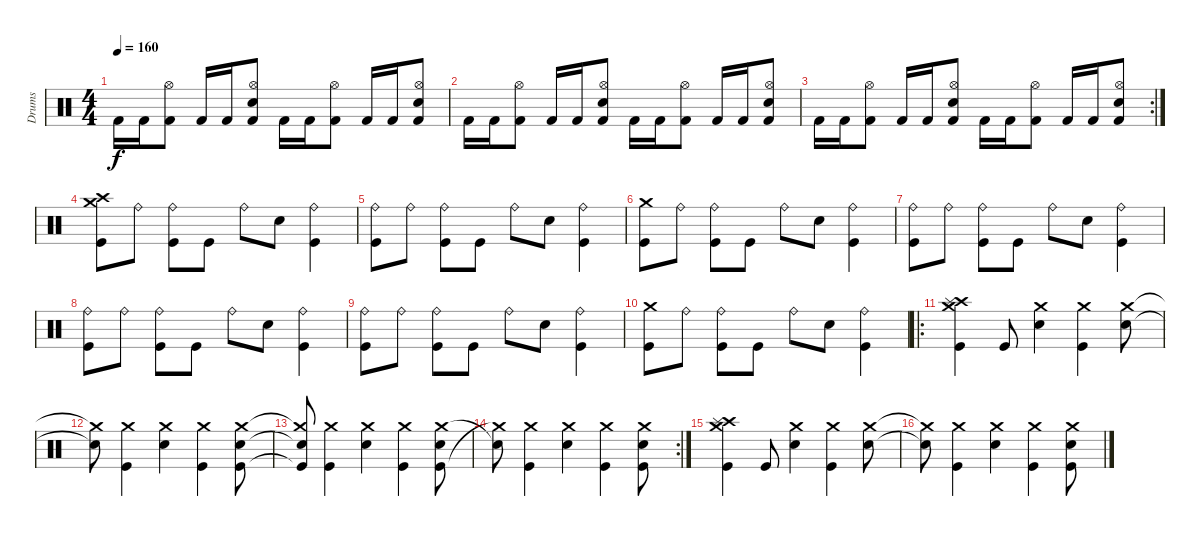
\track ("Drums" "Drums") {instrument percussion}
\staff {score}
\articulation defaults
\ts (4 4)
\tempo 160
\clef neutral
\ks c "Kick (hit) 2".16{dy f} "Kick (hit) 2".16
("Hi-Hat (open)" "Kick (hit) 2").8 "Kick (hit) 2".16 "Kick (hit) 2".16 ("Hi-Hat (open)" "Electric Snare (hit)" "Kick (hit) 2").8 "Kick (hit) 2".16 "Kick (hit) 2".16 ("Hi-Hat (open)" "Kick (hit) 2").8 "Kick (hit) 2".16 "Kick (hit) 2".16 ("Hi-Hat (open)" "Electric Snare (hit)" "Kick (hit) 2").8 |
"Kick (hit) 2".16 "Kick (hit) 2".16 ("Hi-Hat (open)" "Kick (hit) 2").8 "Kick (hit) 2".16 "Kick (hit) 2".16 ("Hi-Hat (open)" "Electric Snare (hit)" "Kick (hit) 2").8 "Kick (hit) 2".16 "Kick (hit) 2".16 ("Hi-Hat (open)" "Kick (hit) 2").8 "Kick (hit) 2".16 "Kick (hit) 2".16 ("Hi-Hat (open)" "Electric Snare (hit)" "Kick (hit) 2").8 |
\rc 2 "Kick (hit) 2".16 "Kick (hit) 2".16
("Hi-Hat (open)" "Kick (hit) 2").8 "Kick (hit) 2".16 "Kick (hit) 2".16 ("Hi-Hat (open)" "Electric Snare (hit)" "Kick (hit) 2").8 "Kick (hit) 2".16 "Kick (hit) 2".16 ("Hi-Hat (open)" "Kick (hit) 2").8 "Kick (hit) 2".16 "Kick (hit) 2".16 ("Hi-Hat (open)" "Electric Snare (hit)" "Kick (hit) 2").8 |
("Kick (hit)" "Crash high (hit)" "Crash medium (hit)").8 "Ride (bell)".8 ("Kick (hit)" "Ride (bell)").8 "Kick (hit)".8 "Ride (bell)".8 "Electric Snare (hit)".8 ("Kick (hit)" "Ride (bell)").4 |
("Kick (hit)" "Ride (bell)").8 "Ride (bell)".8 ("Kick (hit)" "Ride (bell)").8 "Kick (hit)".8 "Ride (bell)".8 "Electric Snare (hit)".8 ("Kick (hit)" "Ride (bell)").4 |
("Kick (hit)" "Crash medium (hit)").8 "Ride (bell)".8 ("Kick (hit)" "Ride (bell)").8 "Kick (hit)".8 "Ride (bell)".8 "Electric Snare (hit)".8 ("Kick (hit)" "Ride (bell)").4 |
("Kick (hit)" "Ride (bell)").8 "Ride (bell)".8 ("Kick (hit)" "Ride (bell)").8 "Kick (hit)".8 "Ride (bell)".8 "Electric Snare (hit)".8 ("Kick (hit)" "Ride (bell)").4 |
("Kick (hit)" "Ride (bell)").8 "Ride (bell)".8 ("Kick (hit)" "Ride (bell)").8 "Kick (hit)".8 "Ride (bell)".8 "Electric Snare (hit)".8 ("Kick (hit)" "Ride (bell)").4 |
("Kick (hit)" "Ride (bell)").8 "Ride (bell)".8 ("Kick (hit)" "Ride (bell)").8 "Kick (hit)".8 "Ride (bell)".8 "Electric Snare (hit)".8 ("Kick (hit)" "Ride (bell)").4 |
("Kick (hit)" "Crash medium (hit)").8 "Ride (bell)".8 ("Kick (hit)" "Ride (bell)").8 "Kick (hit)".8 "Ride (bell)".8 "Electric Snare (hit)".8 ("Kick (hit)" "Ride (bell)").4 |
\ro
("Kick (hit)" "Crash medium (hit)" "Crash high (hit)" "Splash (hit)").4 "Kick (hit)".8 ("Crash medium (hit)" "Electric Snare (hit)").4 ("Kick (hit)" "Crash medium (hit)").4 ("Crash medium (hit)" "Electric Snare (hit)").8 |
("Crash medium (hit)"{t} "Snare (hit)"{t}).8 ("Kick (hit)" "Crash medium (hit)").4 ("Crash medium (hit)" "Electric Snare (hit)").4 ("Kick (hit)" "Crash medium (hit)").4 ("Kick (hit)" "Crash medium (hit)" "Electric Snare (hit)").8 |
("Kick (hit)"{t} "Crash medium (hit)"{t} "Snare (hit)"{t}).8 ("Kick (hit)" "Crash medium (hit)").4 ("Crash medium (hit)" "Electric Snare (hit)").4 ("Kick (hit)" "Crash medium (hit)").4 ("Kick (hit)" "Crash medium (hit)" "Electric Snare (hit)").8 |
\rc 2
("Crash medium (hit)"{t} "Snare (hit)"{t}).8 ("Kick (hit)" "Crash medium (hit)").4 ("Crash medium (hit)" "Electric Snare (hit)").4 ("Kick (hit)" "Crash medium (hit)").4 ("Kick (hit)" "Crash medium (hit)" "Electric Snare (hit)").8 |
("Kick (hit)" "Crash medium (hit)" "Crash high (hit)" "Splash (hit)").4 "Kick (hit)".8 ("Crash medium (hit)" "Electric Snare (hit)").4 ("Kick (hit)" "Crash medium (hit)").4 ("Crash medium (hit)" "Electric Snare (hit)").8 |
("Crash medium (hit)"{t} "Snare (hit)"{t}).8 ("Kick (hit)" "Crash medium (hit)").4 ("Crash medium (hit)" "Electric Snare (hit)").4 ("Kick (hit)" "Crash medium (hit)").4 ("Kick (hit)" "Crash medium (hit)" "Electric Snare (hit)").8
